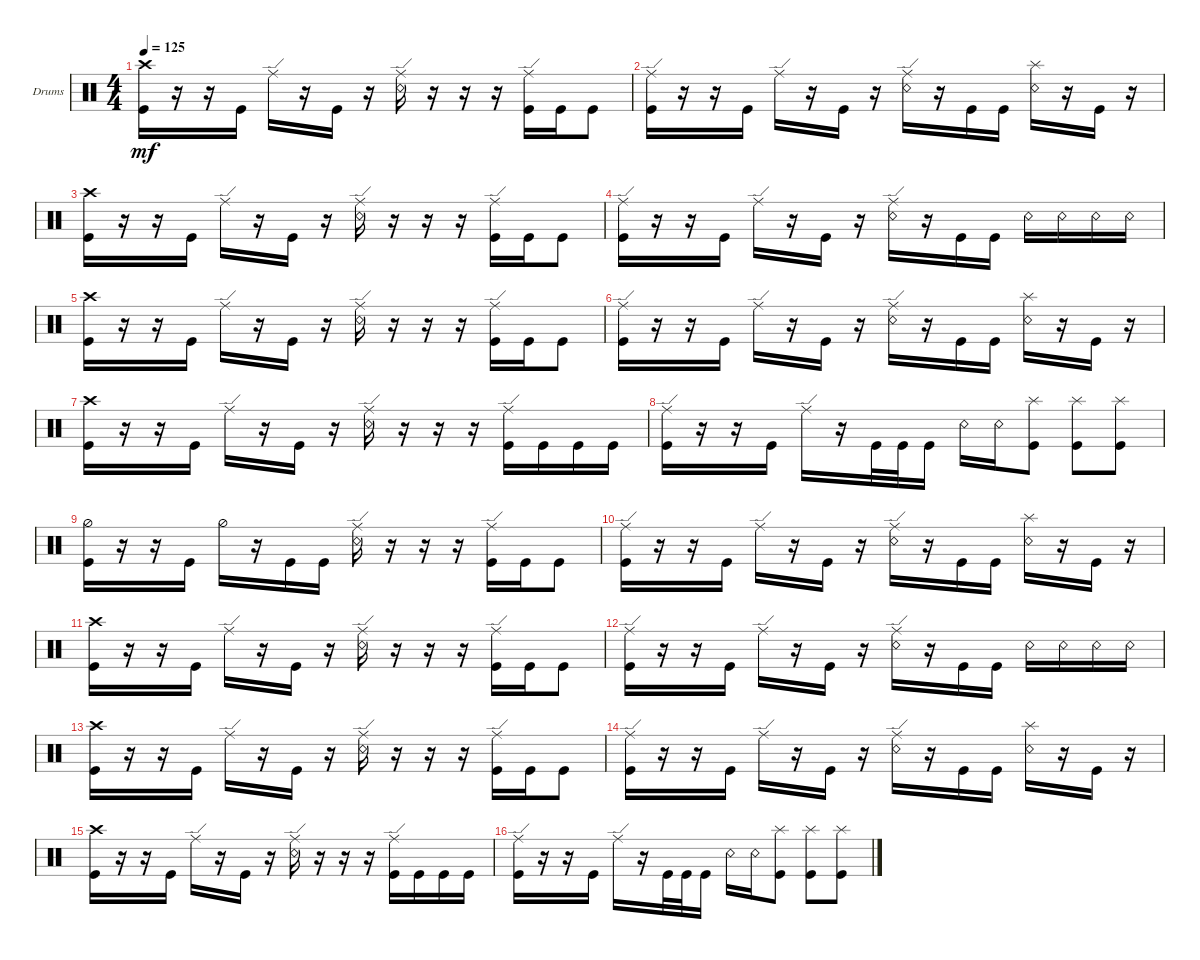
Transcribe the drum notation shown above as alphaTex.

\defaultSystemsLayout 4
\bracketExtendMode groupsimilarinstruments
\firstSystemTrackNameOrientation horizontal
\otherSystemsTrackNameOrientation horizontal
\track ("Drumkit" "Drums") {instrument percussion}
\staff {score}
\articulation defaults
\ts (4 4)
\tempo 125
\clef neutral
\ks c
("Kick (hit)" "Crash high (hit)").16{dy mf} r.16 r.16 "Kick (hit)".16 "Ride (edge)".16 r.16 "Kick (hit)".16 r.16 ("Snare (rim shot)" "Ride (edge)").16 r.16 r.16 r.16 ("Kick (hit)" "Ride (edge)").16 "Kick (hit)".16 "Kick (hit)".8 |
("Kick (hit)" "Ride (edge)").16 r.16 r.16 "Kick (hit)".16 "Ride (edge)".16 r.16 "Kick (hit)".16 r.16 ("Snare (rim shot)" "Ride (edge)").16 r.16 "Kick (hit)".16 "Kick (hit)".16 ("Snare (rim shot)" "Splash (hit)").16 r.16 "Kick (hit)".16 r.16 |
("Kick (hit)" "Crash high (hit)").16 r.16 r.16 "Kick (hit)".16 "Ride (edge)".16 r.16 "Kick (hit)".16 r.16 ("Snare (rim shot)" "Ride (edge)").16 r.16 r.16 r.16 ("Kick (hit)" "Ride (edge)").16 "Kick (hit)".16 "Kick (hit)".8 |
("Kick (hit)" "Ride (edge)").16 r.16 r.16 "Kick (hit)".16 "Ride (edge)".16 r.16 "Kick (hit)".16 r.16 ("Snare (rim shot)" "Ride (edge)").16 r.16 "Kick (hit)".16 "Kick (hit)".16 "Snare (rim shot)".16 "Snare (rim shot)".16 "Snare (rim shot)".16 "Snare (rim shot)".16 |
("Kick (hit)" "Crash high (hit)").16 r.16 r.16 "Kick (hit)".16 "Ride (edge)".16 r.16 "Kick (hit)".16 r.16 ("Snare (rim shot)" "Ride (edge)").16 r.16 r.16 r.16 ("Kick (hit)" "Ride (edge)").16 "Kick (hit)".16 "Kick (hit)".8 |
("Kick (hit)" "Ride (edge)").16 r.16 r.16 "Kick (hit)".16 "Ride (edge)".16 r.16 "Kick (hit)".16 r.16 ("Snare (rim shot)" "Ride (edge)").16 r.16 "Kick (hit)".16 "Kick (hit)".16 ("Snare (rim shot)" "Splash (hit)").16 r.16 "Kick (hit)".16 r.16 |
("Kick (hit)" "Crash high (hit)").16 r.16 r.16 "Kick (hit)".16 "Ride (edge)".16 r.16 "Kick (hit)".16 r.16 ("Snare (rim shot)" "Ride (edge)").16 r.16 r.16 r.16 ("Kick (hit)" "Ride (edge)").16 "Kick (hit)".16 "Kick (hit)".16 "Kick (hit)".16 |
("Kick (hit)" "Ride (edge)").16 r.16 r.16 "Kick (hit)".16 "Ride (edge)".16 r.16 "Kick (hit)".32 "Kick (hit)".32 "Kick (hit)".16 "Snare (rim shot)".16 "Snare (rim shot)".16 ("Kick (hit)" "Splash (hit)").8 ("Kick (hit)" "Splash (hit)").8 ("Kick (hit)" "Splash (hit)").8 |
("Kick (hit)" "Hi-Hat (half)").16 r.16 r.16 "Kick (hit)".16 "Hi-Hat (half)".16 r.16 "Kick (hit)".16 "Kick (hit)".16 ("Snare (rim shot)" "Ride (edge)").16 r.16 r.16 r.16 ("Kick (hit)" "Ride (edge)").16 "Kick (hit)".16 "Kick (hit)".8 |
("Kick (hit)" "Ride (edge)").16 r.16 r.16 "Kick (hit)".16 "Ride (edge)".16 r.16 "Kick (hit)".16 r.16 ("Snare (rim shot)" "Ride (edge)").16 r.16 "Kick (hit)".16 "Kick (hit)".16 ("Snare (rim shot)" "Splash (hit)").16 r.16 "Kick (hit)".16 r.16 |
("Kick (hit)" "Crash high (hit)").16 r.16 r.16 "Kick (hit)".16 "Ride (edge)".16 r.16 "Kick (hit)".16 r.16 ("Snare (rim shot)" "Ride (edge)").16 r.16 r.16 r.16 ("Kick (hit)" "Ride (edge)").16 "Kick (hit)".16 "Kick (hit)".8 |
("Kick (hit)" "Ride (edge)").16 r.16 r.16 "Kick (hit)".16 "Ride (edge)".16 r.16 "Kick (hit)".16 r.16 ("Snare (rim shot)" "Ride (edge)").16 r.16 "Kick (hit)".16 "Kick (hit)".16 "Snare (rim shot)".16 "Snare (rim shot)".16 "Snare (rim shot)".16 "Snare (rim shot)".16 |
("Kick (hit)" "Crash high (hit)").16 r.16 r.16 "Kick (hit)".16 "Ride (edge)".16 r.16 "Kick (hit)".16 r.16 ("Snare (rim shot)" "Ride (edge)").16 r.16 r.16 r.16 ("Kick (hit)" "Ride (edge)").16 "Kick (hit)".16 "Kick (hit)".8 |
("Kick (hit)" "Ride (edge)").16 r.16 r.16 "Kick (hit)".16 "Ride (edge)".16 r.16 "Kick (hit)".16 r.16 ("Snare (rim shot)" "Ride (edge)").16 r.16 "Kick (hit)".16 "Kick (hit)".16 ("Snare (rim shot)" "Splash (hit)").16 r.16 "Kick (hit)".16 r.16 |
("Kick (hit)" "Crash high (hit)").16 r.16 r.16 "Kick (hit)".16 "Ride (edge)".16 r.16 "Kick (hit)".16 r.16 ("Snare (rim shot)" "Ride (edge)").16 r.16 r.16 r.16 ("Kick (hit)" "Ride (edge)").16 "Kick (hit)".16 "Kick (hit)".16 "Kick (hit)".16 |
("Kick (hit)" "Ride (edge)").16 r.16 r.16 "Kick (hit)".16 "Ride (edge)".16 r.16 "Kick (hit)".32 "Kick (hit)".32 "Kick (hit)".16 "Snare (rim shot)".16 "Snare (rim shot)".16 ("Kick (hit)" "Splash (hit)").8 ("Kick (hit)" "Splash (hit)").8 ("Kick (hit)" "Splash (hit)").8
